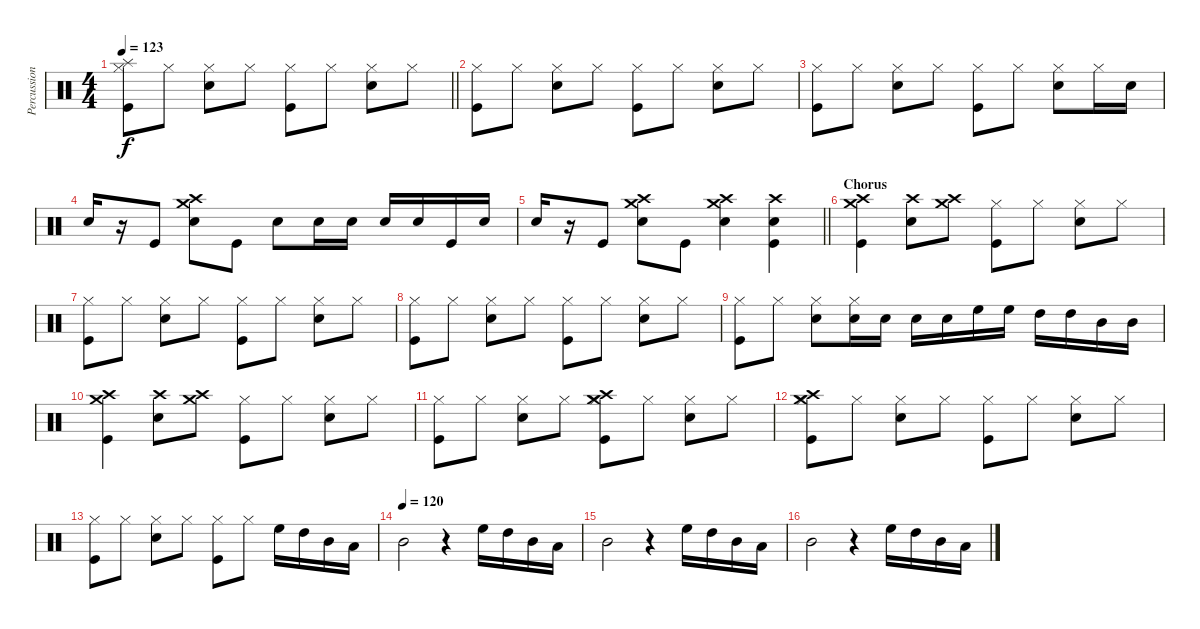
\track ("Percussion" "Percussion") {instrument percussion}
\staff {score}
\articulation defaults
\ts (4 4)
\tempo 123
\clef neutral
\barLineRight lightlight
\ks c
("Hi-Hat (closed)" "Kick (hit)" "Splash (hit)").8{dy f} "Hi-Hat (closed)".8 ("Hi-Hat (closed)" "Snare (hit) 2").8 "Hi-Hat (closed)".8 ("Hi-Hat (closed)" "Kick (hit)").8 "Hi-Hat (closed)".8 ("Hi-Hat (closed)" "Snare (hit) 2").8 "Hi-Hat (closed)".8 |
("Hi-Hat (closed)" "Kick (hit)").8 "Hi-Hat (closed)".8 ("Hi-Hat (closed)" "Snare (hit) 2").8 "Hi-Hat (closed)".8 ("Hi-Hat (closed)" "Kick (hit)").8 "Hi-Hat (closed)".8 ("Hi-Hat (closed)" "Snare (hit) 2").8 "Hi-Hat (closed)".8 |
("Hi-Hat (closed)" "Kick (hit)").8 "Hi-Hat (closed)".8 ("Hi-Hat (closed)" "Snare (hit) 2").8 "Hi-Hat (closed)".8 ("Hi-Hat (closed)" "Kick (hit)").8 "Hi-Hat (closed)".8 ("Hi-Hat (closed)" "Snare (hit) 2").8 "Hi-Hat (closed)".16 "Snare (hit) 2".16 |
"Snare (hit) 2".16 r.16 "Kick (hit)".8 ("Snare (hit) 2" "Crash medium (hit)" "Crash high (hit)").8 "Kick (hit)".8 "Snare (hit) 2".8 "Snare (hit) 2".16 "Snare (hit) 2".16 "Snare (hit) 2".16 "Snare (hit) 2".16 "Kick (hit)".16 "Snare (hit) 2".16 |
\barLineRight lightlight "Snare (hit) 2".16
r.16 "Kick (hit)".8 ("Snare (hit) 2" "Crash medium (hit)" "Crash high (hit)").8 "Kick (hit)".8 ("Snare (hit) 2" "Crash medium (hit)" "Crash high (hit)").4 ("Kick (hit)" "Snare (hit) 2" "Crash high (hit)").4 |
\section ("" "Chorus")
("Crash high (hit)" "Crash medium (hit)" "Kick (hit)").4 ("Crash high (hit)" "Snare (hit) 2").8 ("Crash high (hit)" "Crash medium (hit)").8 ("Hi-Hat (closed)" "Kick (hit)").8 "Hi-Hat (closed)".8 ("Hi-Hat (closed)" "Snare (hit) 2").8 "Hi-Hat (closed)".8 |
("Hi-Hat (closed)" "Kick (hit)").8 "Hi-Hat (closed)".8 ("Hi-Hat (closed)" "Snare (hit) 2").8 "Hi-Hat (closed)".8 ("Hi-Hat (closed)" "Kick (hit)").8 "Hi-Hat (closed)".8 ("Hi-Hat (closed)" "Snare (hit) 2").8 "Hi-Hat (closed)".8 |
("Hi-Hat (closed)" "Kick (hit)").8 "Hi-Hat (closed)".8 ("Hi-Hat (closed)" "Snare (hit) 2").8 "Hi-Hat (closed)".8 ("Hi-Hat (closed)" "Kick (hit)").8 "Hi-Hat (closed)".8 ("Hi-Hat (closed)" "Snare (hit) 2").8 "Hi-Hat (closed)".8 |
("Hi-Hat (closed)" "Kick (hit)").8 "Hi-Hat (closed)".8 ("Hi-Hat (closed)" "Snare (hit) 2").8 ("Hi-Hat (closed)" "Snare (hit) 2").16 "Snare (hit) 2".16 "Snare (hit) 2".16 "Snare (hit) 2".16 "High Floor Tom (hit)".16 "High Floor Tom (hit)".16 "High Tom (hit)".16 "High Tom (hit)".16 "Mid Tom (hit)".16 "Mid Tom (hit)".16 |
("Crash high (hit)" "Crash medium (hit)" "Kick (hit)").4 ("Crash high (hit)" "Snare (hit) 2").8 ("Crash high (hit)" "Crash medium (hit)").8 ("Hi-Hat (closed)" "Kick (hit)").8 "Hi-Hat (closed)".8 ("Hi-Hat (closed)" "Snare (hit) 2").8 "Hi-Hat (closed)".8 |
("Hi-Hat (closed)" "Kick (hit)").8 "Hi-Hat (closed)".8 ("Hi-Hat (closed)" "Snare (hit) 2").8 "Hi-Hat (closed)".8 ("Hi-Hat (closed)" "Kick (hit)" "Crash medium (hit)" "Crash high (hit)").8 "Hi-Hat (closed)".8 ("Hi-Hat (closed)" "Snare (hit) 2").8 "Hi-Hat (closed)".8 |
("Hi-Hat (closed)" "Kick (hit)" "Crash medium (hit)" "Crash high (hit)").8 "Hi-Hat (closed)".8 ("Hi-Hat (closed)" "Snare (hit) 2").8 "Hi-Hat (closed)".8 ("Hi-Hat (closed)" "Kick (hit)").8 "Hi-Hat (closed)".8 ("Hi-Hat (closed)" "Snare (hit) 2").8 "Hi-Hat (closed)".8 |
("Hi-Hat (closed)" "Kick (hit)").8 "Hi-Hat (closed)".8 ("Hi-Hat (closed)" "Snare (hit) 2").8 "Hi-Hat (closed)".8 ("Hi-Hat (closed)" "Kick (hit)").8 "Hi-Hat (closed)".8 "High Floor Tom (hit)".16 "High Tom (hit)".16 "Mid Tom (hit)".16 "Low Tom (hit)".16 |
\tempo (120)
"Mid Tom (hit)".2 r.4 "High Floor Tom (hit)".16 "High Tom (hit)".16 "Mid Tom (hit)".16 "Low Tom (hit)".16 |
"Mid Tom (hit)".2 r.4 "High Floor Tom (hit)".16 "High Tom (hit)".16 "Mid Tom (hit)".16 "Low Tom (hit)".16 |
"Mid Tom (hit)".2 r.4 "High Floor Tom (hit)".16 "High Tom (hit)".16 "Mid Tom (hit)".16 "Low Tom (hit)".16
